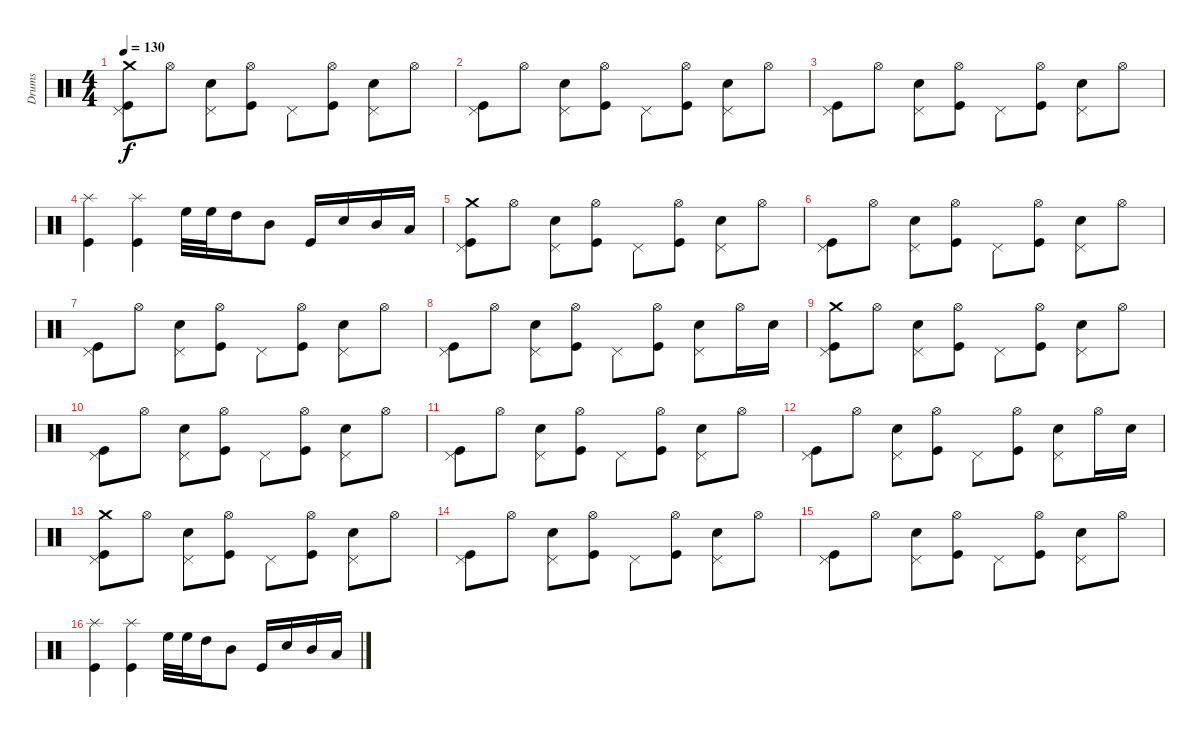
\track ("Drums" "Drums") {instrument percussion}
\staff {score}
\articulation defaults
\ts (4 4)
\tempo 130
\clef neutral
\ks c
("Kick (hit)" "Crash medium (hit)" "Pedal Hi-Hat (hit)").8{dy f} "Hi-Hat (open)".8 ("Electric Snare (hit)" "Pedal Hi-Hat (hit)").8 ("Kick (hit)" "Hi-Hat (open)").8 "Pedal Hi-Hat (hit)".8 ("Kick (hit)" "Hi-Hat (open)").8 ("Electric Snare (hit)" "Pedal Hi-Hat (hit)").8 "Hi-Hat (open)".8 |
("Kick (hit)" "Pedal Hi-Hat (hit)").8 "Hi-Hat (open)".8 ("Electric Snare (hit)" "Pedal Hi-Hat (hit)").8 ("Kick (hit)" "Hi-Hat (open)").8 "Pedal Hi-Hat (hit)".8 ("Kick (hit)" "Hi-Hat (open)").8 ("Electric Snare (hit)" "Pedal Hi-Hat (hit)").8 "Hi-Hat (open)".8 |
("Kick (hit)" "Pedal Hi-Hat (hit)").8 "Hi-Hat (open)".8 ("Electric Snare (hit)" "Pedal Hi-Hat (hit)").8 ("Kick (hit)" "Hi-Hat (open)").8 "Pedal Hi-Hat (hit)".8 ("Kick (hit)" "Hi-Hat (open)").8 ("Electric Snare (hit)" "Pedal Hi-Hat (hit)").8 "Hi-Hat (open)".8 |
("Kick (hit)" "Splash (hit)").4 ("Kick (hit)" "Splash (hit)").4 "High Floor Tom (hit)".32 "High Floor Tom (hit)".32 "High Tom (hit)".16 "Mid Tom (hit)".8 "Kick (hit)".16 "Electric Snare (hit)".16 "Mid Tom (hit)".16 "Low Tom (hit)".16 |
("Kick (hit)" "Crash medium (hit)" "Pedal Hi-Hat (hit)").8 "Hi-Hat (open)".8 ("Electric Snare (hit)" "Pedal Hi-Hat (hit)").8 ("Kick (hit)" "Hi-Hat (open)").8 "Pedal Hi-Hat (hit)".8 ("Kick (hit)" "Hi-Hat (open)").8 ("Electric Snare (hit)" "Pedal Hi-Hat (hit)").8 "Hi-Hat (open)".8 |
("Kick (hit)" "Pedal Hi-Hat (hit)").8 "Hi-Hat (open)".8 ("Electric Snare (hit)" "Pedal Hi-Hat (hit)").8 ("Kick (hit)" "Hi-Hat (open)").8 "Pedal Hi-Hat (hit)".8 ("Kick (hit)" "Hi-Hat (open)").8 ("Electric Snare (hit)" "Pedal Hi-Hat (hit)").8 "Hi-Hat (open)".8 |
("Kick (hit)" "Pedal Hi-Hat (hit)").8 "Hi-Hat (open)".8 ("Electric Snare (hit)" "Pedal Hi-Hat (hit)").8 ("Kick (hit)" "Hi-Hat (open)").8 "Pedal Hi-Hat (hit)".8 ("Kick (hit)" "Hi-Hat (open)").8 ("Electric Snare (hit)" "Pedal Hi-Hat (hit)").8 "Hi-Hat (open)".8 |
("Kick (hit)" "Pedal Hi-Hat (hit)").8 "Hi-Hat (open)".8 ("Electric Snare (hit)" "Pedal Hi-Hat (hit)").8 ("Kick (hit)" "Hi-Hat (open)").8 "Pedal Hi-Hat (hit)".8 ("Kick (hit)" "Hi-Hat (open)").8 ("Electric Snare (hit)" "Pedal Hi-Hat (hit)").8 "Hi-Hat (open)".16 "Electric Snare (hit)".16 |
("Kick (hit)" "Crash medium (hit)" "Pedal Hi-Hat (hit)").8 "Hi-Hat (open)".8 ("Electric Snare (hit)" "Pedal Hi-Hat (hit)").8 ("Kick (hit)" "Hi-Hat (open)").8 "Pedal Hi-Hat (hit)".8 ("Kick (hit)" "Hi-Hat (open)").8 ("Electric Snare (hit)" "Pedal Hi-Hat (hit)").8 "Hi-Hat (open)".8 |
("Kick (hit)" "Pedal Hi-Hat (hit)").8 "Hi-Hat (open)".8 ("Electric Snare (hit)" "Pedal Hi-Hat (hit)").8 ("Kick (hit)" "Hi-Hat (open)").8 "Pedal Hi-Hat (hit)".8 ("Kick (hit)" "Hi-Hat (open)").8 ("Electric Snare (hit)" "Pedal Hi-Hat (hit)").8 "Hi-Hat (open)".8 |
("Kick (hit)" "Pedal Hi-Hat (hit)").8 "Hi-Hat (open)".8 ("Electric Snare (hit)" "Pedal Hi-Hat (hit)").8 ("Kick (hit)" "Hi-Hat (open)").8 "Pedal Hi-Hat (hit)".8 ("Kick (hit)" "Hi-Hat (open)").8 ("Electric Snare (hit)" "Pedal Hi-Hat (hit)").8 "Hi-Hat (open)".8 |
("Kick (hit)" "Pedal Hi-Hat (hit)").8 "Hi-Hat (open)".8 ("Electric Snare (hit)" "Pedal Hi-Hat (hit)").8 ("Kick (hit)" "Hi-Hat (open)").8 "Pedal Hi-Hat (hit)".8 ("Kick (hit)" "Hi-Hat (open)").8 ("Electric Snare (hit)" "Pedal Hi-Hat (hit)").8 "Hi-Hat (open)".16 "Electric Snare (hit)".16 |
("Kick (hit)" "Crash medium (hit)" "Pedal Hi-Hat (hit)").8 "Hi-Hat (open)".8 ("Electric Snare (hit)" "Pedal Hi-Hat (hit)").8 ("Kick (hit)" "Hi-Hat (open)").8 "Pedal Hi-Hat (hit)".8 ("Kick (hit)" "Hi-Hat (open)").8 ("Electric Snare (hit)" "Pedal Hi-Hat (hit)").8 "Hi-Hat (open)".8 |
("Kick (hit)" "Pedal Hi-Hat (hit)").8 "Hi-Hat (open)".8 ("Electric Snare (hit)" "Pedal Hi-Hat (hit)").8 ("Kick (hit)" "Hi-Hat (open)").8 "Pedal Hi-Hat (hit)".8 ("Kick (hit)" "Hi-Hat (open)").8 ("Electric Snare (hit)" "Pedal Hi-Hat (hit)").8 "Hi-Hat (open)".8 |
("Kick (hit)" "Pedal Hi-Hat (hit)").8 "Hi-Hat (open)".8 ("Electric Snare (hit)" "Pedal Hi-Hat (hit)").8 ("Kick (hit)" "Hi-Hat (open)").8 "Pedal Hi-Hat (hit)".8 ("Kick (hit)" "Hi-Hat (open)").8 ("Electric Snare (hit)" "Pedal Hi-Hat (hit)").8 "Hi-Hat (open)".8 |
("Kick (hit)" "Splash (hit)").4 ("Kick (hit)" "Splash (hit)").4 "High Floor Tom (hit)".32 "High Floor Tom (hit)".32 "High Tom (hit)".16 "Mid Tom (hit)".8 "Kick (hit)".16 "Electric Snare (hit)".16 "Mid Tom (hit)".16 "Low Tom (hit)".16
